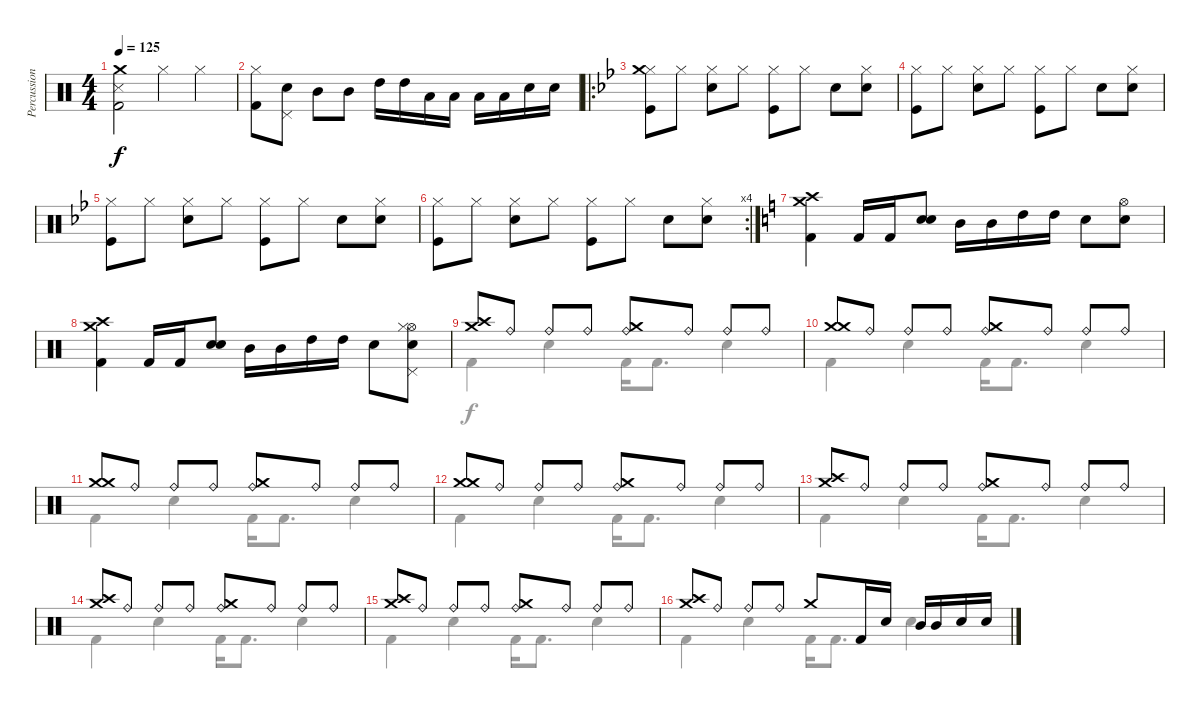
\track ("Percussion" "Percussion") {instrument percussion}
\staff {score}
\articulation defaults
\voice
\ts (4 4)
\tempo 125
\clef neutral
\ks c
("Kick (hit) 2" "Snare (side stick) 3" "Crash medium (hit)").2{dy f} "Hi-Hat (closed)".4 "Hi-Hat (closed)".4 |
("Kick (hit) 2" "Hi-Hat (closed)").8 ("Snare (hit) 2" "Pedal Hi-Hat (hit)").8 "Mid Tom (hit)".8 "Mid Tom (hit)".8 "High Tom (hit)".16 "High Tom (hit)".16 "Low Tom (hit)".16 "Low Tom (hit)".16 "Low Floor Tom (hit)".16 "Low Floor Tom (hit)".16 "Electric Snare (hit)".16 "Electric Snare (hit)".16 |
\ro
\ks bb
("Hi-Hat (closed)" "Kick (hit)" "Crash medium (hit)").8 "Hi-Hat (closed)".8 ("Hi-Hat (closed)" "Snare (hit) 2").8 "Hi-Hat (closed)".8 ("Hi-Hat (closed)" "Kick (hit)").8 "Hi-Hat (closed)".8 "Snare (hit) 2".8 ("Hi-Hat (closed)" "Snare (hit) 2").8 |
("Hi-Hat (closed)" "Kick (hit)").8 "Hi-Hat (closed)".8 ("Hi-Hat (closed)" "Snare (hit) 2").8 "Hi-Hat (closed)".8 ("Hi-Hat (closed)" "Kick (hit)").8 "Hi-Hat (closed)".8 "Snare (hit) 2".8 ("Hi-Hat (closed)" "Snare (hit) 2").8 |
("Hi-Hat (closed)" "Kick (hit)").8 "Hi-Hat (closed)".8 ("Hi-Hat (closed)" "Snare (hit) 2").8 "Hi-Hat (closed)".8 ("Hi-Hat (closed)" "Kick (hit)").8 "Hi-Hat (closed)".8 "Snare (hit) 2".8 ("Hi-Hat (closed)" "Snare (hit) 2").8 |
\rc 4
("Hi-Hat (closed)" "Kick (hit)").8 "Hi-Hat (closed)".8 ("Hi-Hat (closed)" "Snare (hit) 2").8 "Hi-Hat (closed)".8 ("Hi-Hat (closed)" "Kick (hit)").8 "Hi-Hat (closed)".8 "Snare (hit) 2".8 ("Hi-Hat (closed)" "Snare (hit) 2").8 |
\ks c
("Kick (hit) 2" "Crash high (hit)" "Crash medium (hit)").4 "Kick (hit) 2".16 "Kick (hit) 2".16 ("Electric Snare (hit)" "Snare (hit) 2").8 "Mid Tom (hit)".16 "Mid Tom (hit)".16 "High Tom (hit)".16 "High Tom (hit)".16 "Electric Snare (hit)".8 ("Snare (hit) 2" "Hi-Hat (open)").8 |
("Kick (hit) 2" "Crash high (hit)" "Crash medium (hit)").4 "Kick (hit) 2".16 "Kick (hit) 2".16 ("Electric Snare (hit)" "Snare (hit) 2").8 "Mid Tom (hit)".16 "Mid Tom (hit)".16 "High Tom (hit)".16 "High Tom (hit)".16 "Electric Snare (hit)".8 ("Hi-Hat (open)" "Snare (hit) 2" "Pedal Hi-Hat (hit)" "Hi-Hat (closed)").8 |
("Crash medium (hit)" "Crash high (hit)").8 "Ride (bell)".8 "Ride (bell)".8 "Ride (bell)".8 ("Crash medium (hit)" "Ride (bell)").8 "Ride (bell)".8 "Ride (bell)".8 "Ride (bell)".8 |
("Crash medium (hit)" "Crash medium (hit)").8 "Ride (bell)".8 "Ride (bell)".8 "Ride (bell)".8 ("Crash medium (hit)" "Ride (bell)").8 "Ride (bell)".8 "Ride (bell)".8 "Ride (bell)".8 |
("Crash medium (hit)" "Crash medium (hit)").8 "Ride (bell)".8 "Ride (bell)".8 "Ride (bell)".8 ("Crash medium (hit)" "Ride (bell)").8 "Ride (bell)".8 "Ride (bell)".8 "Ride (bell)".8 |
("Crash medium (hit)" "Crash medium (hit)").8 "Ride (bell)".8 "Ride (bell)".8 "Ride (bell)".8 ("Crash medium (hit)" "Ride (bell)").8 "Ride (bell)".8 "Ride (bell)".8 "Ride (bell)".8 |
("Crash medium (hit)" "Crash high (hit)").8 "Ride (bell)".8 "Ride (bell)".8 "Ride (bell)".8 ("Crash medium (hit)" "Ride (bell)").8 "Ride (bell)".8 "Ride (bell)".8 "Ride (bell)".8 |
("Crash medium (hit)" "Crash high (hit)").8 "Ride (bell)".8 "Ride (bell)".8 "Ride (bell)".8 ("Crash medium (hit)" "Ride (bell)").8 "Ride (bell)".8 "Ride (bell)".8 "Ride (bell)".8 |
("Crash medium (hit)" "Crash high (hit)").8 "Ride (bell)".8 "Ride (bell)".8 "Ride (bell)".8 ("Crash medium (hit)" "Ride (bell)").8 "Ride (bell)".8 "Ride (bell)".8 "Ride (bell)".8 |
("Crash medium (hit)" "Crash high (hit)").8 "Ride (bell)".8 "Ride (bell)".8 "Ride (bell)".8 "Crash medium (hit)".8 "Kick (hit) 2".16 "Snare (hit) 2".16 "Mid Tom (hit)".16 "Mid Tom (hit)".16 "Snare (hit) 2".16 "Electric Snare (hit)".16
\voice
\clef neutral
\ottava regular
\simile none
\ks c
|
|
\ks bb
|
|
|
|
\ks c
|
|
"Kick (hit) 2".4 "Electric Snare (hit)".4 "Kick (hit) 2".16 "Kick (hit) 2".8{d} "Electric Snare (hit)".4 |
"Kick (hit) 2".4 "Electric Snare (hit)".4 "Kick (hit) 2".16 "Kick (hit) 2".8{d} "Electric Snare (hit)".4 |
"Kick (hit) 2".4 "Electric Snare (hit)".4 "Kick (hit) 2".16 "Kick (hit) 2".8{d} "Electric Snare (hit)".4 |
"Kick (hit) 2".4 "Electric Snare (hit)".4 "Kick (hit) 2".16 "Kick (hit) 2".8{d} "Electric Snare (hit)".4 |
"Kick (hit) 2".4 "Electric Snare (hit)".4 "Kick (hit) 2".16 "Kick (hit) 2".8{d} "Electric Snare (hit)".4 |
"Kick (hit) 2".4 "Electric Snare (hit)".4 "Kick (hit) 2".16 "Kick (hit) 2".8{d} "Electric Snare (hit)".4 |
"Kick (hit) 2".4 "Electric Snare (hit)".4 "Kick (hit) 2".16 "Kick (hit) 2".8{d} "Electric Snare (hit)".4 |
"Kick (hit) 2".4 "Electric Snare (hit)".4 "Kick (hit) 2".16 "Kick (hit) 2".8{d} "Electric Snare (hit)".4
